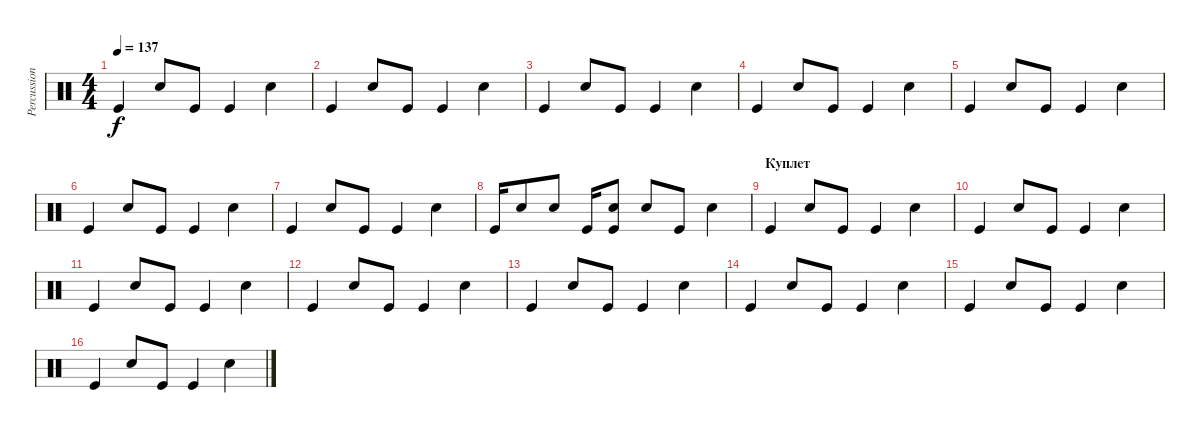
\track ("Percussion" "Percussion") {instrument percussion}
\staff {score}
\articulation defaults
\ts (4 4)
\tempo 137
\clef neutral
\ks c "Kick (hit)".4{dy f} "Snare (hit) 2".8 "Kick (hit)".8 "Kick (hit)".4 "Snare (hit) 2".4
|
"Kick (hit)".4 "Snare (hit) 2".8 "Kick (hit)".8 "Kick (hit)".4 "Snare (hit) 2".4 |
"Kick (hit)".4 "Snare (hit) 2".8 "Kick (hit)".8 "Kick (hit)".4 "Snare (hit) 2".4 |
"Kick (hit)".4 "Snare (hit) 2".8 "Kick (hit)".8 "Kick (hit)".4 "Snare (hit) 2".4 |
"Kick (hit)".4 "Snare (hit) 2".8 "Kick (hit)".8 "Kick (hit)".4 "Snare (hit) 2".4 |
"Kick (hit)".4 "Snare (hit) 2".8 "Kick (hit)".8 "Kick (hit)".4 "Snare (hit) 2".4 |
"Kick (hit)".4 "Snare (hit) 2".8 "Kick (hit)".8 "Kick (hit)".4 "Snare (hit) 2".4 |
"Kick (hit)".16 "Snare (hit) 2".8 "Snare (hit) 2".8 "Kick (hit)".16 ("Snare (hit) 2" "Kick (hit)").8 "Snare (hit) 2".8 "Kick (hit)".8 "Snare (hit) 2".4 |
\section ("" "Куплет")
"Kick (hit)".4 "Snare (hit) 2".8 "Kick (hit)".8 "Kick (hit)".4 "Snare (hit) 2".4 |
"Kick (hit)".4 "Snare (hit) 2".8 "Kick (hit)".8 "Kick (hit)".4 "Snare (hit) 2".4 |
"Kick (hit)".4 "Snare (hit) 2".8 "Kick (hit)".8 "Kick (hit)".4 "Snare (hit) 2".4 |
"Kick (hit)".4 "Snare (hit) 2".8 "Kick (hit)".8 "Kick (hit)".4 "Snare (hit) 2".4 |
"Kick (hit)".4 "Snare (hit) 2".8 "Kick (hit)".8 "Kick (hit)".4 "Snare (hit) 2".4 |
"Kick (hit)".4 "Snare (hit) 2".8 "Kick (hit)".8 "Kick (hit)".4 "Snare (hit) 2".4 |
"Kick (hit)".4 "Snare (hit) 2".8 "Kick (hit)".8 "Kick (hit)".4 "Snare (hit) 2".4 |
"Kick (hit)".4 "Snare (hit) 2".8 "Kick (hit)".8 "Kick (hit)".4 "Snare (hit) 2".4
